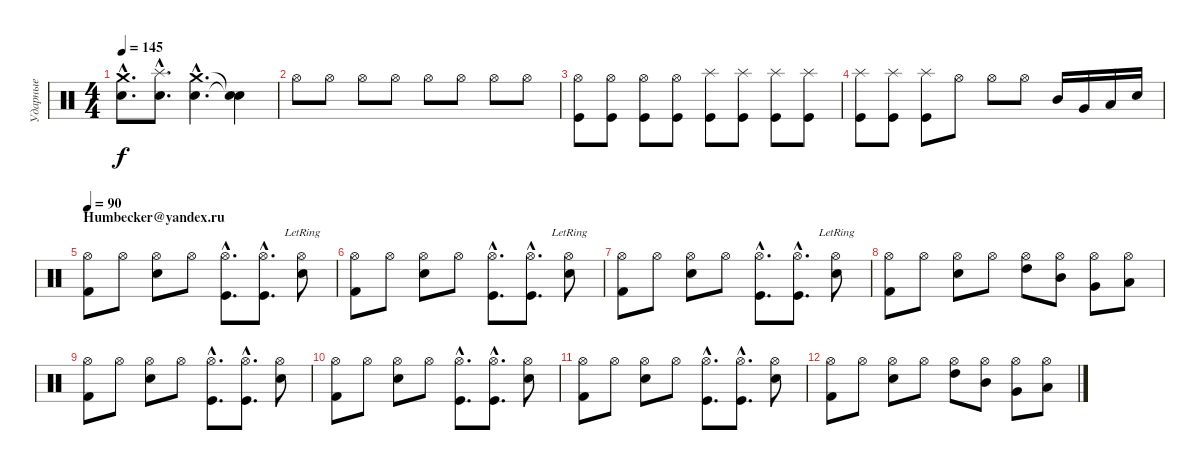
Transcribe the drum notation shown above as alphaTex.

\track ("Ударные" "Ударные") {instrument percussion}
\staff {score}
\articulation defaults
\ts (4 4)
\tempo 145
\clef neutral
\ks c
("Snare (hit) 2"{hac} "Crash medium (hit)"{hac}).8{d dy f} ("Snare (hit) 2"{hac} "Splash (hit)"{hac}).8{d} ("Snare (hit) 2"{hac} "Crash medium (hit)"{hac}).4{d} ("Snare (hit)"{t} "Snare (hit)"{t}).4 |
"Hi-Hat (open)".8 "Hi-Hat (open)".8 "Hi-Hat (open)".8 "Hi-Hat (open)".8 "Hi-Hat (open)".8 "Hi-Hat (open)".8 "Hi-Hat (open)".8 "Hi-Hat (open)".8 |
("Hi-Hat (open)" "Kick (hit)").8 ("Hi-Hat (open)" "Kick (hit)").8 ("Hi-Hat (open)" "Kick (hit)").8 ("Hi-Hat (open)" "Kick (hit)").8 ("Splash (hit)" "Kick (hit)").8 ("Splash (hit)" "Kick (hit)").8 ("Splash (hit)" "Kick (hit)").8 ("Splash (hit)" "Kick (hit)").8 |
("Splash (hit)" "Kick (hit)").8 ("Splash (hit)" "Kick (hit)").8 ("Splash (hit)" "Kick (hit)").8 "Hi-Hat (open)".8 "Hi-Hat (open)".8 "Hi-Hat (open)".8 "Mid Tom (hit)".16 "Very Low Tom (hit)".16 "Low Floor Tom (hit)".16 "Electric Snare (hit)".16 |
\section ("" "Humbecker@yandex.ru")
\tempo 90
("Hi-Hat (open)" "Kick (hit) 2").8 "Hi-Hat (open)".8 ("Hi-Hat (open)" "Snare (hit) 2").8 "Hi-Hat (open)".8 ("Hi-Hat (open)"{hac} "Kick (hit)"{hac}).8{d} ("Hi-Hat (open)"{hac} "Kick (hit)"{hac}).8{d} ("Hi-Hat (open)"{lr} "Snare (hit) 2"{lr}).8 |
("Hi-Hat (open)" "Kick (hit) 2").8 "Hi-Hat (open)".8 ("Hi-Hat (open)" "Snare (hit) 2").8 "Hi-Hat (open)".8 ("Hi-Hat (open)"{hac} "Kick (hit)"{hac}).8{d} ("Hi-Hat (open)"{hac} "Kick (hit)"{hac}).8{d} ("Hi-Hat (open)"{lr} "Snare (hit) 2"{lr}).8 |
("Hi-Hat (open)" "Kick (hit) 2").8 "Hi-Hat (open)".8 ("Hi-Hat (open)" "Snare (hit) 2").8 "Hi-Hat (open)".8 ("Hi-Hat (open)"{hac} "Kick (hit)"{hac}).8{d} ("Hi-Hat (open)"{hac} "Kick (hit)"{hac}).8{d} ("Hi-Hat (open)"{lr} "Snare (hit) 2"{lr}).8 |
("Hi-Hat (open)" "Kick (hit) 2").8 "Hi-Hat (open)".8 ("Hi-Hat (open)" "Snare (hit) 2").8 "Hi-Hat (open)".8 ("Hi-Hat (open)" "High Tom (hit)").8 ("Hi-Hat (open)" "Mid Tom (hit)").8 ("Hi-Hat (open)" "Very Low Tom (hit)").8 ("Hi-Hat (open)" "Low Floor Tom (hit)").8 |
("Hi-Hat (open)" "Kick (hit) 2").8 "Hi-Hat (open)".8 ("Hi-Hat (open)" "Snare (hit) 2").8 "Hi-Hat (open)".8 ("Hi-Hat (open)"{hac} "Kick (hit)"{hac}).8{d} ("Hi-Hat (open)"{hac} "Kick (hit)"{hac}).8{d} ("Hi-Hat (open)" "Snare (hit) 2").8 |
("Hi-Hat (open)" "Kick (hit) 2").8 "Hi-Hat (open)".8 ("Hi-Hat (open)" "Snare (hit) 2").8 "Hi-Hat (open)".8 ("Hi-Hat (open)"{hac} "Kick (hit)"{hac}).8{d} ("Hi-Hat (open)"{hac} "Kick (hit)"{hac}).8{d} ("Hi-Hat (open)" "Snare (hit) 2").8 |
("Hi-Hat (open)" "Kick (hit) 2").8 "Hi-Hat (open)".8 ("Hi-Hat (open)" "Snare (hit) 2").8 "Hi-Hat (open)".8 ("Hi-Hat (open)"{hac} "Kick (hit)"{hac}).8{d} ("Hi-Hat (open)"{hac} "Kick (hit)"{hac}).8{d} ("Hi-Hat (open)" "Snare (hit) 2").8 |
("Hi-Hat (open)" "Kick (hit) 2").8 "Hi-Hat (open)".8 ("Hi-Hat (open)" "Snare (hit) 2").8 "Hi-Hat (open)".8 ("Hi-Hat (open)" "High Tom (hit)").8 ("Hi-Hat (open)" "Mid Tom (hit)").8 ("Hi-Hat (open)" "Very Low Tom (hit)").8 ("Hi-Hat (open)" "Low Floor Tom (hit)").8
